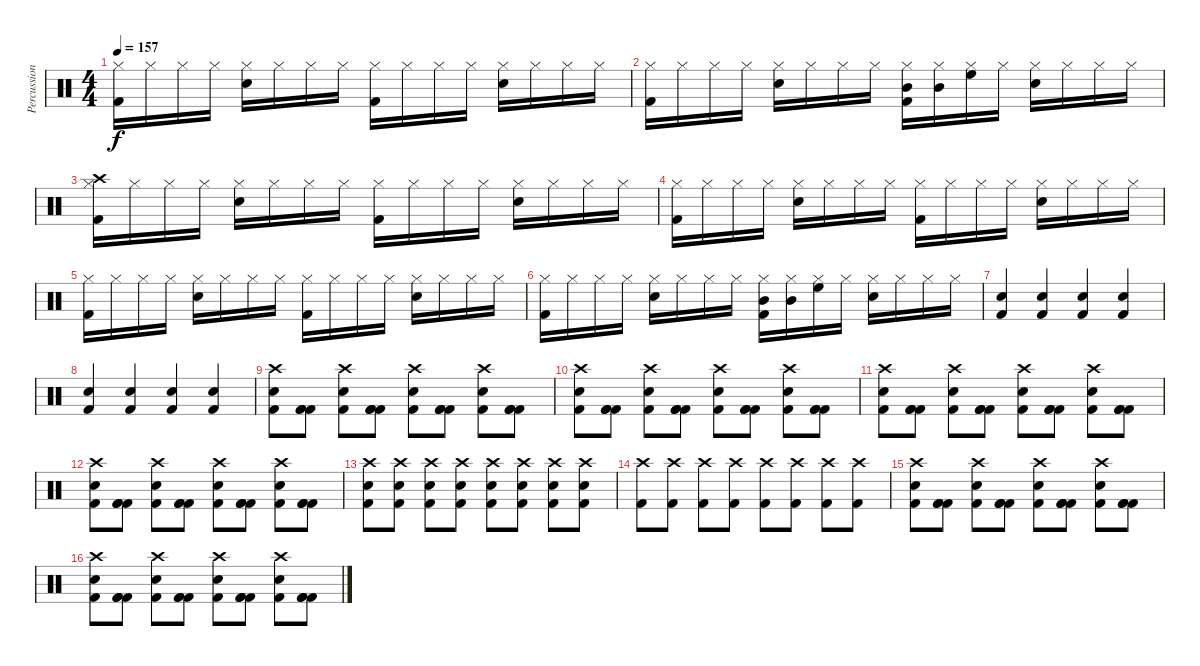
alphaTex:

\track ("Percussion" "Percussion") {instrument percussion}
\staff {score}
\articulation defaults
\ts (4 4)
\tempo 157
\clef neutral
\ks c
("Kick (hit) 2" "Hi-Hat (closed)").16{dy f} "Hi-Hat (closed)".16 "Hi-Hat (closed)".16 "Hi-Hat (closed)".16 ("Electric Snare (hit)" "Hi-Hat (closed)").16 "Hi-Hat (closed)".16 "Hi-Hat (closed)".16 "Hi-Hat (closed)".16 ("Kick (hit) 2" "Hi-Hat (closed)").16 "Hi-Hat (closed)".16 "Hi-Hat (closed)".16 "Hi-Hat (closed)".16 ("Electric Snare (hit)" "Hi-Hat (closed)").16 "Hi-Hat (closed)".16 "Hi-Hat (closed)".16 "Hi-Hat (closed)".16 |
("Kick (hit) 2" "Hi-Hat (closed)").16 "Hi-Hat (closed)".16 "Hi-Hat (closed)".16 "Hi-Hat (closed)".16 ("Electric Snare (hit)" "Hi-Hat (closed)").16 "Hi-Hat (closed)".16 "Hi-Hat (closed)".16 "Hi-Hat (closed)".16 ("Kick (hit) 2" "Hi-Hat (closed)" "Mid Tom (hit)").16 ("Hi-Hat (closed)" "Mid Tom (hit)").16 ("Hi-Hat (closed)" "High Floor Tom (hit)").16 "Hi-Hat (closed)".16 ("Electric Snare (hit)" "Hi-Hat (closed)").16 "Hi-Hat (closed)".16 "Hi-Hat (closed)".16 "Hi-Hat (closed)".16 |
("Kick (hit) 2" "Hi-Hat (closed)" "Crash high (hit)").16 "Hi-Hat (closed)".16 "Hi-Hat (closed)".16 "Hi-Hat (closed)".16 ("Electric Snare (hit)" "Hi-Hat (closed)").16 "Hi-Hat (closed)".16 "Hi-Hat (closed)".16 "Hi-Hat (closed)".16 ("Kick (hit) 2" "Hi-Hat (closed)").16 "Hi-Hat (closed)".16 "Hi-Hat (closed)".16 "Hi-Hat (closed)".16 ("Electric Snare (hit)" "Hi-Hat (closed)").16 "Hi-Hat (closed)".16 "Hi-Hat (closed)".16 "Hi-Hat (closed)".16 |
("Kick (hit) 2" "Hi-Hat (closed)").16 "Hi-Hat (closed)".16 "Hi-Hat (closed)".16 "Hi-Hat (closed)".16 ("Electric Snare (hit)" "Hi-Hat (closed)").16 "Hi-Hat (closed)".16 "Hi-Hat (closed)".16 "Hi-Hat (closed)".16 ("Kick (hit) 2" "Hi-Hat (closed)").16 "Hi-Hat (closed)".16 "Hi-Hat (closed)".16 "Hi-Hat (closed)".16 ("Electric Snare (hit)" "Hi-Hat (closed)").16 "Hi-Hat (closed)".16 "Hi-Hat (closed)".16 "Hi-Hat (closed)".16 |
("Kick (hit) 2" "Hi-Hat (closed)").16 "Hi-Hat (closed)".16 "Hi-Hat (closed)".16 "Hi-Hat (closed)".16 ("Electric Snare (hit)" "Hi-Hat (closed)").16 "Hi-Hat (closed)".16 "Hi-Hat (closed)".16 "Hi-Hat (closed)".16 ("Kick (hit) 2" "Hi-Hat (closed)").16 "Hi-Hat (closed)".16 "Hi-Hat (closed)".16 "Hi-Hat (closed)".16 ("Electric Snare (hit)" "Hi-Hat (closed)").16 "Hi-Hat (closed)".16 "Hi-Hat (closed)".16 "Hi-Hat (closed)".16 |
("Kick (hit) 2" "Hi-Hat (closed)").16 "Hi-Hat (closed)".16 "Hi-Hat (closed)".16 "Hi-Hat (closed)".16 ("Electric Snare (hit)" "Hi-Hat (closed)").16 "Hi-Hat (closed)".16 "Hi-Hat (closed)".16 "Hi-Hat (closed)".16 ("Kick (hit) 2" "Hi-Hat (closed)" "Mid Tom (hit)").16 ("Hi-Hat (closed)" "Mid Tom (hit)").16 ("Hi-Hat (closed)" "High Floor Tom (hit)").16 "Hi-Hat (closed)".16 ("Electric Snare (hit)" "Hi-Hat (closed)").16 "Hi-Hat (closed)".16 "Hi-Hat (closed)".16 "Hi-Hat (closed)".16 |
("Kick (hit) 2" "Electric Snare (hit)").4 ("Kick (hit) 2" "Electric Snare (hit)").4 ("Kick (hit) 2" "Electric Snare (hit)").4 ("Kick (hit) 2" "Electric Snare (hit)").4 |
("Kick (hit) 2" "Electric Snare (hit)").4 ("Kick (hit) 2" "Electric Snare (hit)").4 ("Kick (hit) 2" "Electric Snare (hit)").4 ("Kick (hit) 2" "Electric Snare (hit)").4 |
("Kick (hit) 2" "Electric Snare (hit)" "Crash high (hit)").8 ("Kick (hit) 2" "Kick (hit) 2" "Kick (hit) 2").8 ("Kick (hit) 2" "Electric Snare (hit)" "Crash high (hit)").8 ("Kick (hit) 2" "Kick (hit) 2" "Kick (hit) 2").8 ("Kick (hit) 2" "Electric Snare (hit)" "Crash high (hit)").8 ("Kick (hit) 2" "Kick (hit) 2" "Kick (hit) 2").8 ("Kick (hit) 2" "Electric Snare (hit)" "Crash high (hit)").8 ("Kick (hit) 2" "Kick (hit) 2" "Kick (hit) 2").8 |
("Kick (hit) 2" "Electric Snare (hit)" "Crash high (hit)").8 ("Kick (hit) 2" "Kick (hit) 2" "Kick (hit) 2").8 ("Kick (hit) 2" "Electric Snare (hit)" "Crash high (hit)").8 ("Kick (hit) 2" "Kick (hit) 2" "Kick (hit) 2").8 ("Kick (hit) 2" "Electric Snare (hit)" "Crash high (hit)").8 ("Kick (hit) 2" "Kick (hit) 2" "Kick (hit) 2").8 ("Kick (hit) 2" "Electric Snare (hit)" "Crash high (hit)").8 ("Kick (hit) 2" "Kick (hit) 2" "Kick (hit) 2").8 |
("Kick (hit) 2" "Electric Snare (hit)" "Crash high (hit)").8 ("Kick (hit) 2" "Kick (hit) 2" "Kick (hit) 2").8 ("Kick (hit) 2" "Electric Snare (hit)" "Crash high (hit)").8 ("Kick (hit) 2" "Kick (hit) 2" "Kick (hit) 2").8 ("Kick (hit) 2" "Electric Snare (hit)" "Crash high (hit)").8 ("Kick (hit) 2" "Kick (hit) 2" "Kick (hit) 2").8 ("Kick (hit) 2" "Electric Snare (hit)" "Crash high (hit)").8 ("Kick (hit) 2" "Kick (hit) 2" "Kick (hit) 2").8 |
("Kick (hit) 2" "Electric Snare (hit)" "Crash high (hit)").8 ("Kick (hit) 2" "Kick (hit) 2" "Kick (hit) 2").8 ("Kick (hit) 2" "Electric Snare (hit)" "Crash high (hit)").8 ("Kick (hit) 2" "Kick (hit) 2" "Kick (hit) 2").8 ("Kick (hit) 2" "Electric Snare (hit)" "Crash high (hit)").8 ("Kick (hit) 2" "Kick (hit) 2" "Kick (hit) 2").8 ("Kick (hit) 2" "Electric Snare (hit)" "Crash high (hit)").8 ("Kick (hit) 2" "Kick (hit) 2" "Kick (hit) 2").8 |
("Kick (hit) 2" "Electric Snare (hit)" "Crash high (hit)").8 ("Kick (hit) 2" "Electric Snare (hit)" "Crash high (hit)").8 ("Kick (hit) 2" "Electric Snare (hit)" "Crash high (hit)").8 ("Kick (hit) 2" "Electric Snare (hit)" "Crash high (hit)").8 ("Kick (hit) 2" "Electric Snare (hit)" "Crash high (hit)").8 ("Kick (hit) 2" "Electric Snare (hit)" "Crash high (hit)").8 ("Kick (hit) 2" "Electric Snare (hit)" "Crash high (hit)").8 ("Kick (hit) 2" "Electric Snare (hit)" "Crash high (hit)").8 |
("Kick (hit) 2" "Crash high (hit)").8 ("Kick (hit) 2" "Crash high (hit)").8 ("Kick (hit) 2" "Crash high (hit)").8 ("Kick (hit) 2" "Crash high (hit)").8 ("Kick (hit) 2" "Crash high (hit)").8 ("Kick (hit) 2" "Crash high (hit)").8 ("Kick (hit) 2" "Crash high (hit)").8 ("Kick (hit) 2" "Crash high (hit)").8 |
("Kick (hit) 2" "Electric Snare (hit)" "Crash high (hit)").8 ("Kick (hit) 2" "Kick (hit) 2" "Kick (hit) 2").8 ("Kick (hit) 2" "Electric Snare (hit)" "Crash high (hit)").8 ("Kick (hit) 2" "Kick (hit) 2" "Kick (hit) 2").8 ("Kick (hit) 2" "Electric Snare (hit)" "Crash high (hit)").8 ("Kick (hit) 2" "Kick (hit) 2" "Kick (hit) 2").8 ("Kick (hit) 2" "Electric Snare (hit)" "Crash high (hit)").8 ("Kick (hit) 2" "Kick (hit) 2" "Kick (hit) 2").8 |
("Kick (hit) 2" "Electric Snare (hit)" "Crash high (hit)").8 ("Kick (hit) 2" "Kick (hit) 2" "Kick (hit) 2").8 ("Kick (hit) 2" "Electric Snare (hit)" "Crash high (hit)").8 ("Kick (hit) 2" "Kick (hit) 2" "Kick (hit) 2").8 ("Kick (hit) 2" "Electric Snare (hit)" "Crash high (hit)").8 ("Kick (hit) 2" "Kick (hit) 2" "Kick (hit) 2").8 ("Kick (hit) 2" "Electric Snare (hit)" "Crash high (hit)").8 ("Kick (hit) 2" "Kick (hit) 2" "Kick (hit) 2").8
